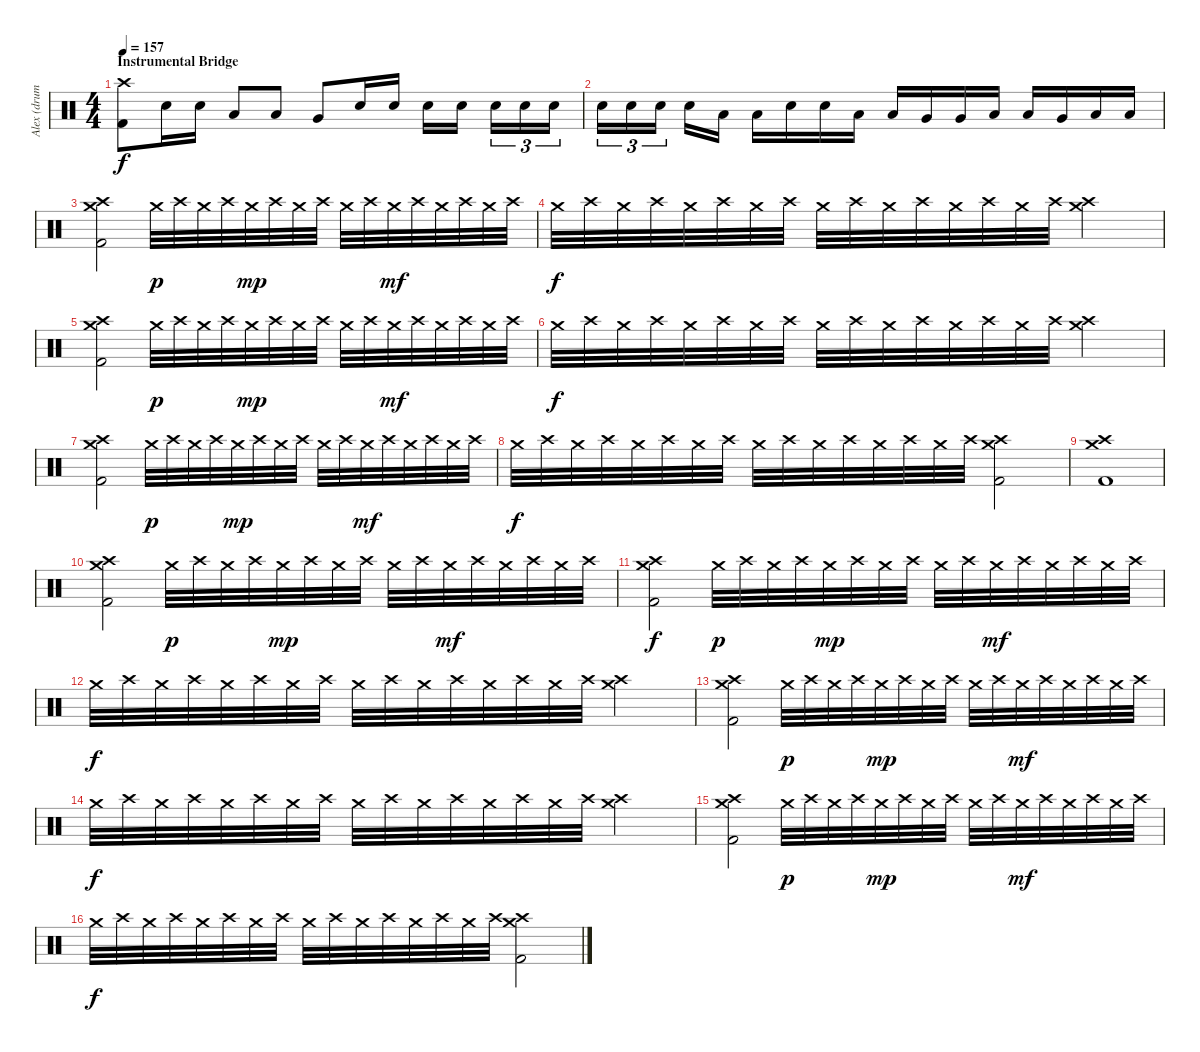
\track ("Alex (drums)" "Alex (drum") {instrument percussion}
\staff {score}
\articulation defaults
\ts (4 4)
\section ("" "Instrumental Bridge")
\tempo 157
\clef neutral
\ks c
("Kick (hit) 2" "Crash high (hit)").8{dy f} "Snare (hit) 2".16 "Snare (hit) 2".16 "Low Tom (hit)".8 "Low Tom (hit)".8 "Very Low Tom (hit)".8 "Snare (hit) 2".16 "Snare (hit) 2".16 "Snare (hit) 2".16 "Snare (hit) 2".16 "Snare (hit) 2".16{tu (3 2)} "Snare (hit) 2".16{tu (3 2)} "Snare (hit) 2".16{tu (3 2)} |
"Snare (hit) 2".16{tu (3 2)} "Snare (hit) 2".16{tu (3 2)} "Snare (hit) 2".16{tu (3 2)} "Snare (hit) 2".16 "Low Tom (hit)".16 "Low Tom (hit)".16 "Snare (hit) 2".16 "Snare (hit) 2".16 "Low Tom (hit)".16 "Low Tom (hit)".16 "Very Low Tom (hit)".16 "Very Low Tom (hit)".16 "Low Tom (hit)".16 "Low Tom (hit)".16 "Very Low Tom (hit)".16 "Low Floor Tom (hit)".16 "Low Floor Tom (hit)".16 |
("Kick (hit) 2" "Crash medium (hit)" "Crash high (hit)").2 "Crash medium (hit)".32{dy p} "Crash high (hit)".32 "Crash medium (hit)".32 "Crash high (hit)".32 "Crash medium (hit)".32{dy mp} "Crash high (hit)".32 "Crash medium (hit)".32 "Crash high (hit)".32 "Crash medium (hit)".32 "Crash high (hit)".32 "Crash medium (hit)".32{dy mf} "Crash high (hit)".32 "Crash medium (hit)".32 "Crash high (hit)".32 "Crash medium (hit)".32 "Crash high (hit)".32 |
"Crash medium (hit)".32{dy f} "Crash high (hit)".32 "Crash medium (hit)".32 "Crash high (hit)".32 "Crash medium (hit)".32 "Crash high (hit)".32 "Crash medium (hit)".32 "Crash high (hit)".32 "Crash medium (hit)".32 "Crash high (hit)".32 "Crash medium (hit)".32 "Crash high (hit)".32 "Crash medium (hit)".32 "Crash high (hit)".32 "Crash medium (hit)".32 "Crash high (hit)".32 ("Crash medium (hit)" "Crash high (hit)").2 |
("Kick (hit) 2" "Crash medium (hit)" "Crash high (hit)").2 "Crash medium (hit)".32{dy p} "Crash high (hit)".32 "Crash medium (hit)".32 "Crash high (hit)".32 "Crash medium (hit)".32{dy mp} "Crash high (hit)".32 "Crash medium (hit)".32 "Crash high (hit)".32 "Crash medium (hit)".32 "Crash high (hit)".32 "Crash medium (hit)".32{dy mf} "Crash high (hit)".32 "Crash medium (hit)".32 "Crash high (hit)".32 "Crash medium (hit)".32 "Crash high (hit)".32 |
"Crash medium (hit)".32{dy f} "Crash high (hit)".32 "Crash medium (hit)".32 "Crash high (hit)".32 "Crash medium (hit)".32 "Crash high (hit)".32 "Crash medium (hit)".32 "Crash high (hit)".32 "Crash medium (hit)".32 "Crash high (hit)".32 "Crash medium (hit)".32 "Crash high (hit)".32 "Crash medium (hit)".32 "Crash high (hit)".32 "Crash medium (hit)".32 "Crash high (hit)".32 ("Crash medium (hit)" "Crash high (hit)").2 |
("Kick (hit) 2" "Crash medium (hit)" "Crash high (hit)").2 "Crash medium (hit)".32{dy p} "Crash high (hit)".32 "Crash medium (hit)".32 "Crash high (hit)".32 "Crash medium (hit)".32{dy mp} "Crash high (hit)".32 "Crash medium (hit)".32 "Crash high (hit)".32 "Crash medium (hit)".32 "Crash high (hit)".32 "Crash medium (hit)".32{dy mf} "Crash high (hit)".32 "Crash medium (hit)".32 "Crash high (hit)".32 "Crash medium (hit)".32 "Crash high (hit)".32 |
"Crash medium (hit)".32{dy f} "Crash high (hit)".32 "Crash medium (hit)".32 "Crash high (hit)".32 "Crash medium (hit)".32 "Crash high (hit)".32 "Crash medium (hit)".32 "Crash high (hit)".32 "Crash medium (hit)".32 "Crash high (hit)".32 "Crash medium (hit)".32 "Crash high (hit)".32 "Crash medium (hit)".32 "Crash high (hit)".32 "Crash medium (hit)".32 "Crash high (hit)".32 ("Kick (hit) 2" "Crash medium (hit)" "Crash high (hit)").2 |
("Kick (hit) 2" "Crash medium (hit)" "Crash high (hit)").1 |
("Kick (hit) 2" "Crash medium (hit)" "Crash high (hit)").2 "Crash medium (hit)".32{dy p} "Crash high (hit)".32 "Crash medium (hit)".32 "Crash high (hit)".32 "Crash medium (hit)".32{dy mp} "Crash high (hit)".32 "Crash medium (hit)".32 "Crash high (hit)".32 "Crash medium (hit)".32 "Crash high (hit)".32 "Crash medium (hit)".32{dy mf} "Crash high (hit)".32 "Crash medium (hit)".32 "Crash high (hit)".32 "Crash medium (hit)".32 "Crash high (hit)".32 |
("Kick (hit) 2" "Crash medium (hit)" "Crash high (hit)").2{dy f} "Crash medium (hit)".32{dy p} "Crash high (hit)".32 "Crash medium (hit)".32 "Crash high (hit)".32 "Crash medium (hit)".32{dy mp} "Crash high (hit)".32 "Crash medium (hit)".32 "Crash high (hit)".32 "Crash medium (hit)".32 "Crash high (hit)".32 "Crash medium (hit)".32{dy mf} "Crash high (hit)".32 "Crash medium (hit)".32 "Crash high (hit)".32 "Crash medium (hit)".32 "Crash high (hit)".32 |
"Crash medium (hit)".32{dy f} "Crash high (hit)".32 "Crash medium (hit)".32 "Crash high (hit)".32 "Crash medium (hit)".32 "Crash high (hit)".32 "Crash medium (hit)".32 "Crash high (hit)".32 "Crash medium (hit)".32 "Crash high (hit)".32 "Crash medium (hit)".32 "Crash high (hit)".32 "Crash medium (hit)".32 "Crash high (hit)".32 "Crash medium (hit)".32 "Crash high (hit)".32 ("Crash medium (hit)" "Crash high (hit)").2 |
("Kick (hit) 2" "Crash medium (hit)" "Crash high (hit)").2 "Crash medium (hit)".32{dy p} "Crash high (hit)".32 "Crash medium (hit)".32 "Crash high (hit)".32 "Crash medium (hit)".32{dy mp} "Crash high (hit)".32 "Crash medium (hit)".32 "Crash high (hit)".32 "Crash medium (hit)".32 "Crash high (hit)".32 "Crash medium (hit)".32{dy mf} "Crash high (hit)".32 "Crash medium (hit)".32 "Crash high (hit)".32 "Crash medium (hit)".32 "Crash high (hit)".32 |
"Crash medium (hit)".32{dy f} "Crash high (hit)".32 "Crash medium (hit)".32 "Crash high (hit)".32 "Crash medium (hit)".32 "Crash high (hit)".32 "Crash medium (hit)".32 "Crash high (hit)".32 "Crash medium (hit)".32 "Crash high (hit)".32 "Crash medium (hit)".32 "Crash high (hit)".32 "Crash medium (hit)".32 "Crash high (hit)".32 "Crash medium (hit)".32 "Crash high (hit)".32 ("Crash medium (hit)" "Crash high (hit)").2 |
("Kick (hit) 2" "Crash medium (hit)" "Crash high (hit)").2 "Crash medium (hit)".32{dy p} "Crash high (hit)".32 "Crash medium (hit)".32 "Crash high (hit)".32 "Crash medium (hit)".32{dy mp} "Crash high (hit)".32 "Crash medium (hit)".32 "Crash high (hit)".32 "Crash medium (hit)".32 "Crash high (hit)".32 "Crash medium (hit)".32{dy mf} "Crash high (hit)".32 "Crash medium (hit)".32 "Crash high (hit)".32 "Crash medium (hit)".32 "Crash high (hit)".32 |
"Crash medium (hit)".32{dy f} "Crash high (hit)".32 "Crash medium (hit)".32 "Crash high (hit)".32 "Crash medium (hit)".32 "Crash high (hit)".32 "Crash medium (hit)".32 "Crash high (hit)".32 "Crash medium (hit)".32 "Crash high (hit)".32 "Crash medium (hit)".32 "Crash high (hit)".32 "Crash medium (hit)".32 "Crash high (hit)".32 "Crash medium (hit)".32 "Crash high (hit)".32 ("Kick (hit) 2" "Crash medium (hit)" "Crash high (hit)").2
